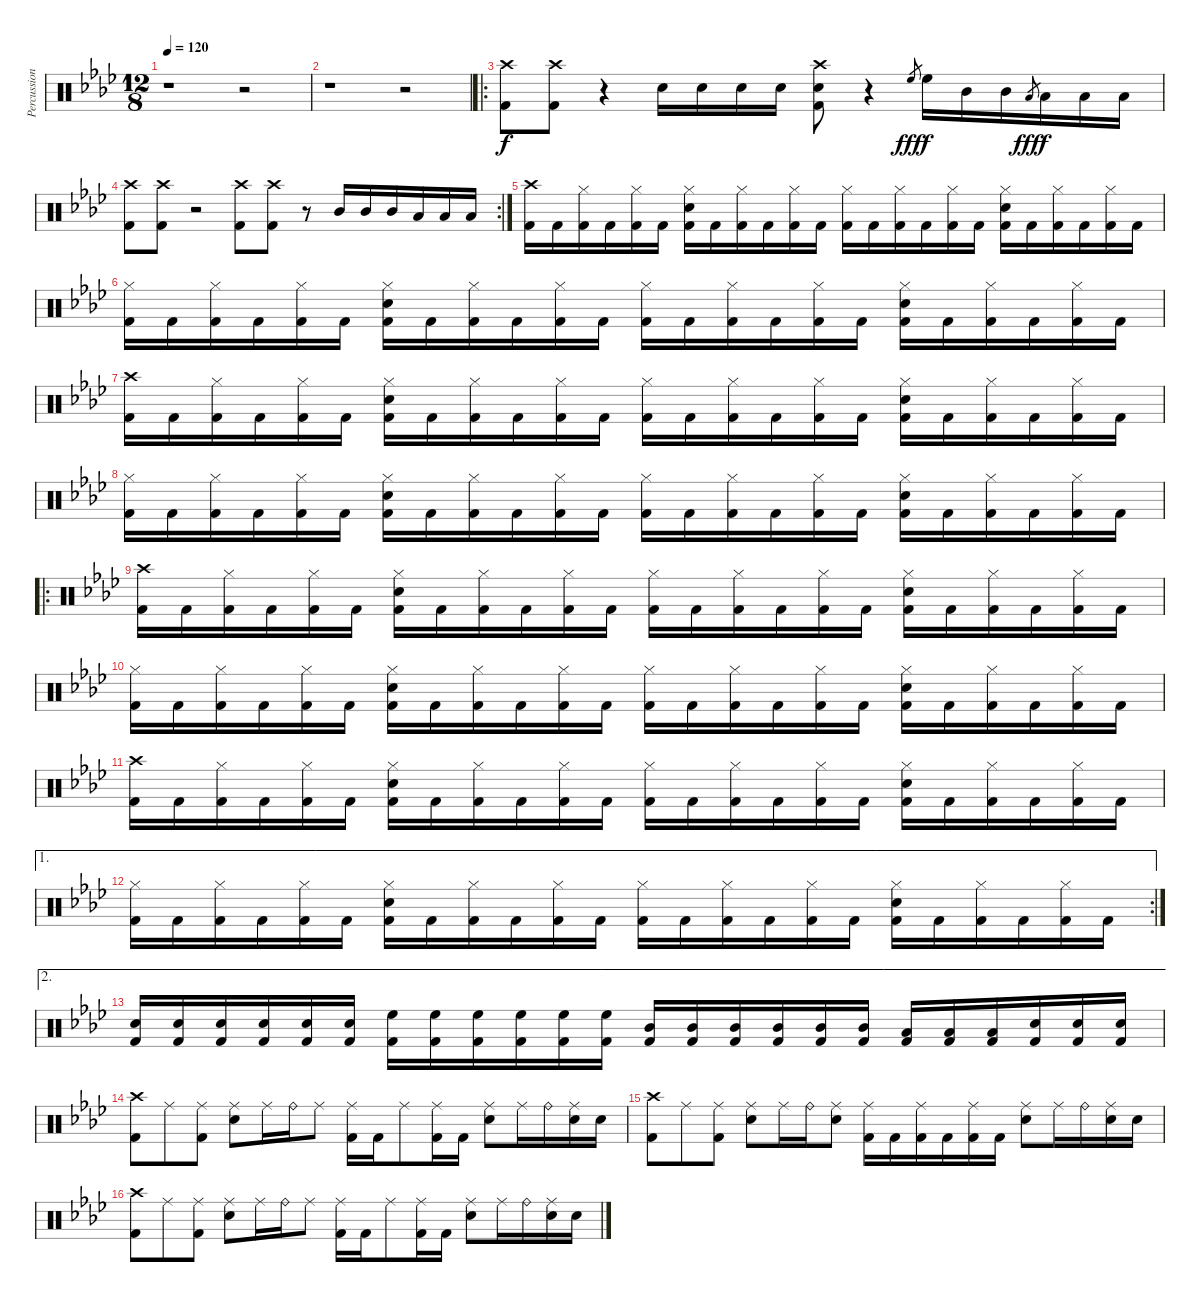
\track ("Percussions" "Percussion") {instrument percussion}
\staff {score}
\articulation defaults
\ts (12 8)
\tempo 120
\clef neutral
\ks fminor
r.1{dy f} r.2 |
r.1 r.2 |
\ro
("Crash high (hit)" "Kick (hit) 2").8 ("Crash high (hit)" "Kick (hit) 2").8 r.4 "Snare (hit) 2".16 "Snare (hit) 2".16 "Snare (hit) 2".16 "Snare (hit) 2".16 ("Crash high (hit)" "Snare (hit) 2" "Kick (hit) 2").8 r.4 "High Floor Tom (hit)"{h}.8{gr dy fff} "High Floor Tom (hit)".16{dy f} "Mid Tom (hit)".16 "Mid Tom (hit)".16 "Low Tom (hit)"{h}.8{gr dy fff} "Low Tom (hit)".16{dy f} "Low Floor Tom (hit)".16 "Low Floor Tom (hit)".16 |
\rc 2
("Crash high (hit)" "Kick (hit) 2").8 ("Crash high (hit)" "Kick (hit) 2").8 r.2 ("Crash high (hit)" "Kick (hit) 2").8 ("Crash high (hit)" "Kick (hit) 2").8 r.8 "Mid Tom (hit)".16 "Mid Tom (hit)".16 "Mid Tom (hit)".16 "Low Tom (hit)".16 "Low Tom (hit)".16 "Low Tom (hit)".16 |
("Crash high (hit)" "Kick (hit) 2").16 "Kick (hit) 2".16 ("Hi-Hat (closed)" "Kick (hit) 2").16 "Kick (hit) 2".16 ("Hi-Hat (closed)" "Kick (hit) 2").16 "Kick (hit) 2".16 ("Hi-Hat (closed)" "Snare (hit) 2" "Kick (hit) 2").16 "Kick (hit) 2".16 ("Hi-Hat (closed)" "Kick (hit) 2").16 "Kick (hit) 2".16 ("Hi-Hat (closed)" "Kick (hit) 2").16 "Kick (hit) 2".16 ("Hi-Hat (closed)" "Kick (hit) 2").16 "Kick (hit) 2".16 ("Hi-Hat (closed)" "Kick (hit) 2").16 "Kick (hit) 2".16 ("Hi-Hat (closed)" "Kick (hit) 2").16 "Kick (hit) 2".16 ("Hi-Hat (closed)" "Snare (hit) 2" "Kick (hit) 2").16 "Kick (hit) 2".16 ("Hi-Hat (closed)" "Kick (hit) 2").16 "Kick (hit) 2".16 ("Hi-Hat (closed)" "Kick (hit) 2").16 "Kick (hit) 2".16 |
("Hi-Hat (closed)" "Kick (hit) 2").16 "Kick (hit) 2".16 ("Hi-Hat (closed)" "Kick (hit) 2").16 "Kick (hit) 2".16 ("Hi-Hat (closed)" "Kick (hit) 2").16 "Kick (hit) 2".16 ("Hi-Hat (closed)" "Snare (hit) 2" "Kick (hit) 2").16 "Kick (hit) 2".16 ("Hi-Hat (closed)" "Kick (hit) 2").16 "Kick (hit) 2".16 ("Hi-Hat (closed)" "Kick (hit) 2").16 "Kick (hit) 2".16 ("Hi-Hat (closed)" "Kick (hit) 2").16 "Kick (hit) 2".16 ("Hi-Hat (closed)" "Kick (hit) 2").16 "Kick (hit) 2".16 ("Hi-Hat (closed)" "Kick (hit) 2").16 "Kick (hit) 2".16 ("Hi-Hat (closed)" "Snare (hit) 2" "Kick (hit) 2").16 "Kick (hit) 2".16 ("Hi-Hat (closed)" "Kick (hit) 2").16 "Kick (hit) 2".16 ("Hi-Hat (closed)" "Kick (hit) 2").16 "Kick (hit) 2".16 |
("Crash high (hit)" "Kick (hit) 2").16 "Kick (hit) 2".16 ("Hi-Hat (closed)" "Kick (hit) 2").16 "Kick (hit) 2".16 ("Hi-Hat (closed)" "Kick (hit) 2").16 "Kick (hit) 2".16 ("Hi-Hat (closed)" "Snare (hit) 2" "Kick (hit) 2").16 "Kick (hit) 2".16 ("Hi-Hat (closed)" "Kick (hit) 2").16 "Kick (hit) 2".16 ("Hi-Hat (closed)" "Kick (hit) 2").16 "Kick (hit) 2".16 ("Hi-Hat (closed)" "Kick (hit) 2").16 "Kick (hit) 2".16 ("Hi-Hat (closed)" "Kick (hit) 2").16 "Kick (hit) 2".16 ("Hi-Hat (closed)" "Kick (hit) 2").16 "Kick (hit) 2".16 ("Hi-Hat (closed)" "Snare (hit) 2" "Kick (hit) 2").16 "Kick (hit) 2".16 ("Hi-Hat (closed)" "Kick (hit) 2").16 "Kick (hit) 2".16 ("Hi-Hat (closed)" "Kick (hit) 2").16 "Kick (hit) 2".16 |
("Hi-Hat (closed)" "Kick (hit) 2").16 "Kick (hit) 2".16 ("Hi-Hat (closed)" "Kick (hit) 2").16 "Kick (hit) 2".16 ("Hi-Hat (closed)" "Kick (hit) 2").16 "Kick (hit) 2".16 ("Hi-Hat (closed)" "Snare (hit) 2" "Kick (hit) 2").16 "Kick (hit) 2".16 ("Hi-Hat (closed)" "Kick (hit) 2").16 "Kick (hit) 2".16 ("Hi-Hat (closed)" "Kick (hit) 2").16 "Kick (hit) 2".16 ("Hi-Hat (closed)" "Kick (hit) 2").16 "Kick (hit) 2".16 ("Hi-Hat (closed)" "Kick (hit) 2").16 "Kick (hit) 2".16 ("Hi-Hat (closed)" "Kick (hit) 2").16 "Kick (hit) 2".16 ("Hi-Hat (closed)" "Snare (hit) 2" "Kick (hit) 2").16 "Kick (hit) 2".16 ("Hi-Hat (closed)" "Kick (hit) 2").16 "Kick (hit) 2".16 ("Hi-Hat (closed)" "Kick (hit) 2").16 "Kick (hit) 2".16 |
\ro
("Crash high (hit)" "Kick (hit) 2").16 "Kick (hit) 2".16 ("Hi-Hat (closed)" "Kick (hit) 2").16 "Kick (hit) 2".16 ("Hi-Hat (closed)" "Kick (hit) 2").16 "Kick (hit) 2".16 ("Hi-Hat (closed)" "Snare (hit) 2" "Kick (hit) 2").16 "Kick (hit) 2".16 ("Hi-Hat (closed)" "Kick (hit) 2").16 "Kick (hit) 2".16 ("Hi-Hat (closed)" "Kick (hit) 2").16 "Kick (hit) 2".16 ("Hi-Hat (closed)" "Kick (hit) 2").16 "Kick (hit) 2".16 ("Hi-Hat (closed)" "Kick (hit) 2").16 "Kick (hit) 2".16 ("Hi-Hat (closed)" "Kick (hit) 2").16 "Kick (hit) 2".16 ("Hi-Hat (closed)" "Snare (hit) 2" "Kick (hit) 2").16 "Kick (hit) 2".16 ("Hi-Hat (closed)" "Kick (hit) 2").16 "Kick (hit) 2".16 ("Hi-Hat (closed)" "Kick (hit) 2").16 "Kick (hit) 2".16 |
("Hi-Hat (closed)" "Kick (hit) 2").16 "Kick (hit) 2".16 ("Hi-Hat (closed)" "Kick (hit) 2").16 "Kick (hit) 2".16 ("Hi-Hat (closed)" "Kick (hit) 2").16 "Kick (hit) 2".16 ("Hi-Hat (closed)" "Snare (hit) 2" "Kick (hit) 2").16 "Kick (hit) 2".16 ("Hi-Hat (closed)" "Kick (hit) 2").16 "Kick (hit) 2".16 ("Hi-Hat (closed)" "Kick (hit) 2").16 "Kick (hit) 2".16 ("Hi-Hat (closed)" "Kick (hit) 2").16 "Kick (hit) 2".16 ("Hi-Hat (closed)" "Kick (hit) 2").16 "Kick (hit) 2".16 ("Hi-Hat (closed)" "Kick (hit) 2").16 "Kick (hit) 2".16 ("Hi-Hat (closed)" "Snare (hit) 2" "Kick (hit) 2").16 "Kick (hit) 2".16 ("Hi-Hat (closed)" "Kick (hit) 2").16 "Kick (hit) 2".16 ("Hi-Hat (closed)" "Kick (hit) 2").16 "Kick (hit) 2".16 |
("Crash high (hit)" "Kick (hit) 2").16 "Kick (hit) 2".16 ("Hi-Hat (closed)" "Kick (hit) 2").16 "Kick (hit) 2".16 ("Hi-Hat (closed)" "Kick (hit) 2").16 "Kick (hit) 2".16 ("Hi-Hat (closed)" "Snare (hit) 2" "Kick (hit) 2").16 "Kick (hit) 2".16 ("Hi-Hat (closed)" "Kick (hit) 2").16 "Kick (hit) 2".16 ("Hi-Hat (closed)" "Kick (hit) 2").16 "Kick (hit) 2".16 ("Hi-Hat (closed)" "Kick (hit) 2").16 "Kick (hit) 2".16 ("Hi-Hat (closed)" "Kick (hit) 2").16 "Kick (hit) 2".16 ("Hi-Hat (closed)" "Kick (hit) 2").16 "Kick (hit) 2".16 ("Hi-Hat (closed)" "Snare (hit) 2" "Kick (hit) 2").16 "Kick (hit) 2".16 ("Hi-Hat (closed)" "Kick (hit) 2").16 "Kick (hit) 2".16 ("Hi-Hat (closed)" "Kick (hit) 2").16 "Kick (hit) 2".16 |
\ae 1
\rc 2
("Hi-Hat (closed)" "Kick (hit) 2").16 "Kick (hit) 2".16 ("Hi-Hat (closed)" "Kick (hit) 2").16 "Kick (hit) 2".16 ("Hi-Hat (closed)" "Kick (hit) 2").16 "Kick (hit) 2".16 ("Hi-Hat (closed)" "Snare (hit) 2" "Kick (hit) 2").16 "Kick (hit) 2".16 ("Hi-Hat (closed)" "Kick (hit) 2").16 "Kick (hit) 2".16 ("Hi-Hat (closed)" "Kick (hit) 2").16 "Kick (hit) 2".16 ("Hi-Hat (closed)" "Kick (hit) 2").16 "Kick (hit) 2".16 ("Hi-Hat (closed)" "Kick (hit) 2").16 "Kick (hit) 2".16 ("Hi-Hat (closed)" "Kick (hit) 2").16 "Kick (hit) 2".16 ("Hi-Hat (closed)" "Snare (hit) 2" "Kick (hit) 2").16 "Kick (hit) 2".16 ("Hi-Hat (closed)" "Kick (hit) 2").16 "Kick (hit) 2".16 ("Hi-Hat (closed)" "Kick (hit) 2").16 "Kick (hit) 2".16 |
\ae 2
("Snare (hit) 2" "Kick (hit) 2").16 ("Snare (hit) 2" "Kick (hit) 2").16 ("Snare (hit) 2" "Kick (hit) 2").16 ("Snare (hit) 2" "Kick (hit) 2").16 ("Snare (hit) 2" "Kick (hit) 2").16 ("Snare (hit) 2" "Kick (hit) 2").16 ("High Floor Tom (hit)" "Kick (hit) 2").16 ("High Floor Tom (hit)" "Kick (hit) 2").16 ("High Floor Tom (hit)" "Kick (hit) 2").16 ("High Floor Tom (hit)" "Kick (hit) 2").16 ("High Floor Tom (hit)" "Kick (hit) 2").16 ("High Floor Tom (hit)" "Kick (hit) 2").16 ("Mid Tom (hit)" "Kick (hit) 2").16 ("Mid Tom (hit)" "Kick (hit) 2").16 ("Mid Tom (hit)" "Kick (hit) 2").16 ("Mid Tom (hit)" "Kick (hit) 2").16 ("Mid Tom (hit)" "Kick (hit) 2").16 ("Mid Tom (hit)" "Kick (hit) 2").16 ("Low Tom (hit)" "Kick (hit) 2").16 ("Low Tom (hit)" "Kick (hit) 2").16 ("Low Tom (hit)" "Kick (hit) 2").16 ("Snare (hit) 2" "Kick (hit) 2").16 ("Snare (hit) 2" "Kick (hit) 2").16 ("Snare (hit) 2" "Kick (hit) 2").16 |
("Crash high (hit)" "Kick (hit) 2").8 "Ride (middle)".8 ("Ride (middle)" "Kick (hit) 2").8 ("Ride (middle)" "Snare (hit) 2").8 "Ride (middle)".16 "Ride (bell)".16 "Ride (middle)".8 ("Ride (middle)" "Kick (hit) 2").16 "Kick (hit) 2".16 "Ride (middle)".8 ("Ride (middle)" "Kick (hit) 2").16 "Kick (hit) 2".16 ("Ride (middle)" "Snare (hit) 2").8 "Ride (middle)".16 "Ride (bell)".16 ("Ride (middle)" "Snare (hit) 2").16 "Snare (hit) 2".16 |
("Crash high (hit)" "Kick (hit) 2").8 "Ride (middle)".8 ("Ride (middle)" "Kick (hit) 2").8 ("Ride (middle)" "Snare (hit) 2").8 "Ride (middle)".16 "Ride (bell)".16 ("Ride (middle)" "Snare (hit) 2").8 ("Ride (middle)" "Kick (hit) 2").16 "Kick (hit) 2".16 ("Ride (middle)" "Kick (hit) 2").16 "Kick (hit) 2".16 ("Ride (middle)" "Kick (hit) 2").16 "Kick (hit) 2".16 ("Ride (middle)" "Snare (hit) 2").8 "Ride (middle)".16 "Ride (bell)".16 ("Ride (middle)" "Snare (hit) 2").16 "Snare (hit) 2".16 |
("Crash high (hit)" "Kick (hit) 2").8 "Ride (middle)".8 ("Ride (middle)" "Kick (hit) 2").8 ("Ride (middle)" "Snare (hit) 2").8 "Ride (middle)".16 "Ride (bell)".16 "Ride (middle)".8 ("Ride (middle)" "Kick (hit) 2").16 "Kick (hit) 2".16 "Ride (middle)".8 ("Ride (middle)" "Kick (hit) 2").16 "Kick (hit) 2".16 ("Ride (middle)" "Snare (hit) 2").8 "Ride (middle)".16 "Ride (bell)".16 ("Ride (middle)" "Snare (hit) 2").16 "Snare (hit) 2".16
